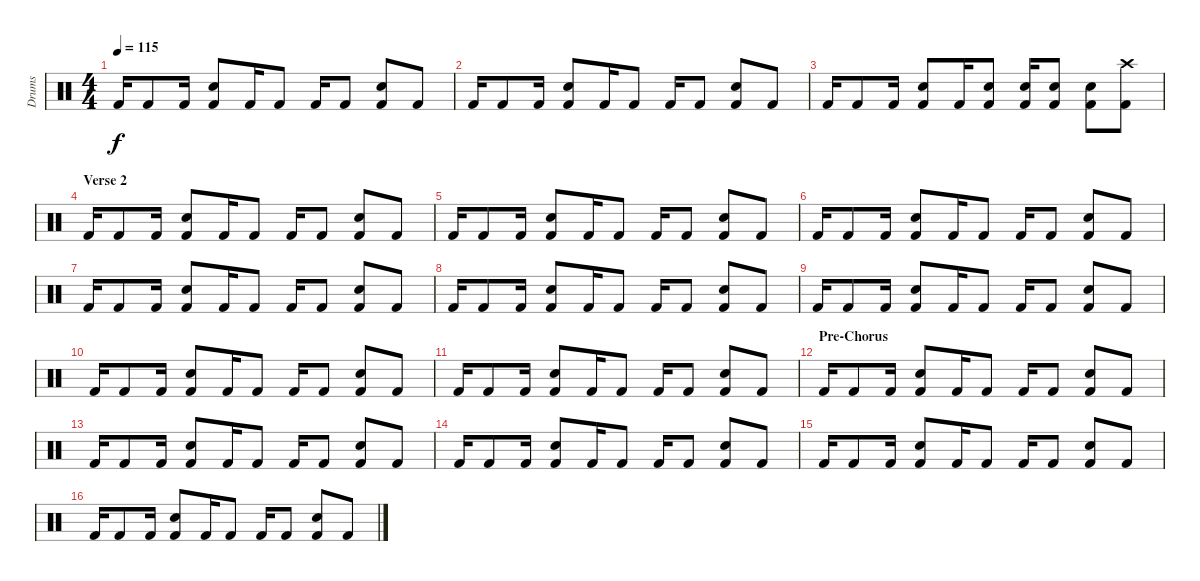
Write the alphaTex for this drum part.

\track ("Drums" "Drums") {instrument percussion}
\staff {score}
\articulation defaults
\ts (4 4)
\tempo 115
\clef neutral
\ks c "Kick (hit) 2".16{dy f} "Kick (hit) 2".8 "Kick (hit) 2".16
("Snare (hit) 2" "Kick (hit) 2").8 "Kick (hit) 2".16 "Kick (hit) 2".8 "Kick (hit) 2".16 "Kick (hit) 2".8 ("Snare (hit) 2" "Kick (hit) 2").8 "Kick (hit) 2".8 |
"Kick (hit) 2".16 "Kick (hit) 2".8 "Kick (hit) 2".16 ("Snare (hit) 2" "Kick (hit) 2").8 "Kick (hit) 2".16 "Kick (hit) 2".8 "Kick (hit) 2".16 "Kick (hit) 2".8 ("Snare (hit) 2" "Kick (hit) 2").8 "Kick (hit) 2".8 |
"Kick (hit) 2".16 "Kick (hit) 2".8 "Kick (hit) 2".16 ("Snare (hit) 2" "Kick (hit) 2").8 "Kick (hit) 2".16 ("Snare (hit) 2" "Kick (hit) 2").8 ("Snare (hit) 2" "Kick (hit) 2").16 ("Snare (hit) 2" "Kick (hit) 2").8 ("Snare (hit) 2" "Kick (hit) 2").8 ("Crash high (hit)" "Kick (hit) 2").8 |
\section ("" "Verse 2")
"Kick (hit) 2".16 "Kick (hit) 2".8 "Kick (hit) 2".16 ("Snare (hit) 2" "Kick (hit) 2").8 "Kick (hit) 2".16 "Kick (hit) 2".8 "Kick (hit) 2".16 "Kick (hit) 2".8 ("Snare (hit) 2" "Kick (hit) 2").8 "Kick (hit) 2".8 |
"Kick (hit) 2".16 "Kick (hit) 2".8 "Kick (hit) 2".16 ("Snare (hit) 2" "Kick (hit) 2").8 "Kick (hit) 2".16 "Kick (hit) 2".8 "Kick (hit) 2".16 "Kick (hit) 2".8 ("Snare (hit) 2" "Kick (hit) 2").8 "Kick (hit) 2".8 |
"Kick (hit) 2".16 "Kick (hit) 2".8 "Kick (hit) 2".16 ("Snare (hit) 2" "Kick (hit) 2").8 "Kick (hit) 2".16 "Kick (hit) 2".8 "Kick (hit) 2".16 "Kick (hit) 2".8 ("Snare (hit) 2" "Kick (hit) 2").8 "Kick (hit) 2".8 |
"Kick (hit) 2".16 "Kick (hit) 2".8 "Kick (hit) 2".16 ("Snare (hit) 2" "Kick (hit) 2").8 "Kick (hit) 2".16 "Kick (hit) 2".8 "Kick (hit) 2".16 "Kick (hit) 2".8 ("Snare (hit) 2" "Kick (hit) 2").8 "Kick (hit) 2".8 |
"Kick (hit) 2".16 "Kick (hit) 2".8 "Kick (hit) 2".16 ("Snare (hit) 2" "Kick (hit) 2").8 "Kick (hit) 2".16 "Kick (hit) 2".8 "Kick (hit) 2".16 "Kick (hit) 2".8 ("Snare (hit) 2" "Kick (hit) 2").8 "Kick (hit) 2".8 |
"Kick (hit) 2".16 "Kick (hit) 2".8 "Kick (hit) 2".16 ("Snare (hit) 2" "Kick (hit) 2").8 "Kick (hit) 2".16 "Kick (hit) 2".8 "Kick (hit) 2".16 "Kick (hit) 2".8 ("Snare (hit) 2" "Kick (hit) 2").8 "Kick (hit) 2".8 |
"Kick (hit) 2".16 "Kick (hit) 2".8 "Kick (hit) 2".16 ("Snare (hit) 2" "Kick (hit) 2").8 "Kick (hit) 2".16 "Kick (hit) 2".8 "Kick (hit) 2".16 "Kick (hit) 2".8 ("Snare (hit) 2" "Kick (hit) 2").8 "Kick (hit) 2".8 |
"Kick (hit) 2".16 "Kick (hit) 2".8 "Kick (hit) 2".16 ("Snare (hit) 2" "Kick (hit) 2").8 "Kick (hit) 2".16 "Kick (hit) 2".8 "Kick (hit) 2".16 "Kick (hit) 2".8 ("Snare (hit) 2" "Kick (hit) 2").8 "Kick (hit) 2".8 |
\section ("" "Pre-Chorus")
"Kick (hit) 2".16 "Kick (hit) 2".8 "Kick (hit) 2".16 ("Snare (hit) 2" "Kick (hit) 2").8 "Kick (hit) 2".16 "Kick (hit) 2".8 "Kick (hit) 2".16 "Kick (hit) 2".8 ("Snare (hit) 2" "Kick (hit) 2").8 "Kick (hit) 2".8 |
"Kick (hit) 2".16 "Kick (hit) 2".8 "Kick (hit) 2".16 ("Snare (hit) 2" "Kick (hit) 2").8 "Kick (hit) 2".16 "Kick (hit) 2".8 "Kick (hit) 2".16 "Kick (hit) 2".8 ("Snare (hit) 2" "Kick (hit) 2").8 "Kick (hit) 2".8 |
"Kick (hit) 2".16 "Kick (hit) 2".8 "Kick (hit) 2".16 ("Snare (hit) 2" "Kick (hit) 2").8 "Kick (hit) 2".16 "Kick (hit) 2".8 "Kick (hit) 2".16 "Kick (hit) 2".8 ("Snare (hit) 2" "Kick (hit) 2").8 "Kick (hit) 2".8 |
"Kick (hit) 2".16 "Kick (hit) 2".8 "Kick (hit) 2".16 ("Snare (hit) 2" "Kick (hit) 2").8 "Kick (hit) 2".16 "Kick (hit) 2".8 "Kick (hit) 2".16 "Kick (hit) 2".8 ("Snare (hit) 2" "Kick (hit) 2").8 "Kick (hit) 2".8 |
"Kick (hit) 2".16 "Kick (hit) 2".8 "Kick (hit) 2".16 ("Snare (hit) 2" "Kick (hit) 2").8 "Kick (hit) 2".16 "Kick (hit) 2".8 "Kick (hit) 2".16 "Kick (hit) 2".8 ("Snare (hit) 2" "Kick (hit) 2").8 "Kick (hit) 2".8
